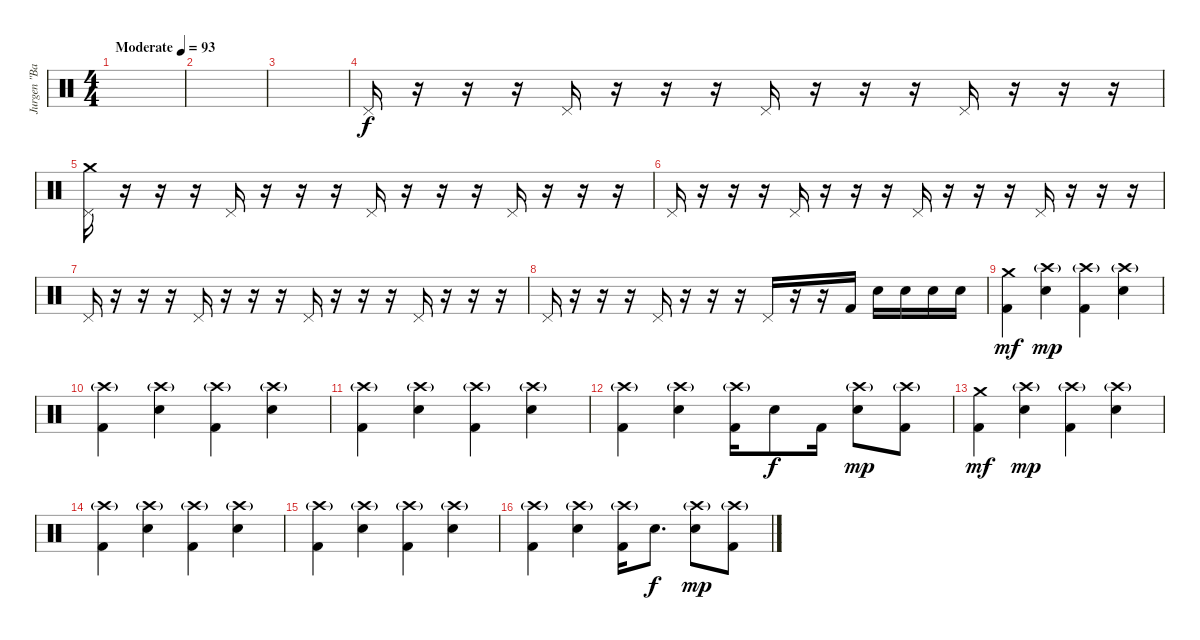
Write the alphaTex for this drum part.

\track ("Jurgen \"Bam Bam\" Wiehler" "Jurgen \"Ba") {instrument percussion}
\staff {score}
\articulation defaults
\ts (4 4)
\tempo (93 "Moderate")
\clef neutral
\ks c
|
|
|
"Pedal Hi-Hat (hit)".16 r.16 r.16 r.16 "Pedal Hi-Hat (hit)".16 r.16 r.16 r.16 "Pedal Hi-Hat (hit)".16 r.16 r.16 r.16 "Pedal Hi-Hat (hit)".16 r.16 r.16 r.16 |
("Crash medium (hit)" "Pedal Hi-Hat (hit)").16 r.16 r.16 r.16 "Pedal Hi-Hat (hit)".16 r.16 r.16 r.16 "Pedal Hi-Hat (hit)".16 r.16 r.16 r.16 "Pedal Hi-Hat (hit)".16 r.16 r.16 r.16 |
"Pedal Hi-Hat (hit)".16 r.16 r.16 r.16 "Pedal Hi-Hat (hit)".16 r.16 r.16 r.16 "Pedal Hi-Hat (hit)".16 r.16 r.16 r.16 "Pedal Hi-Hat (hit)".16 r.16 r.16 r.16 |
"Pedal Hi-Hat (hit)".16 r.16 r.16 r.16 "Pedal Hi-Hat (hit)".16 r.16 r.16 r.16 "Pedal Hi-Hat (hit)".16 r.16 r.16 r.16 "Pedal Hi-Hat (hit)".16 r.16 r.16 r.16 |
"Pedal Hi-Hat (hit)".16 r.16 r.16 r.16 "Pedal Hi-Hat (hit)".16 r.16 r.16 r.16 "Pedal Hi-Hat (hit)".16 r.16 r.16 "Kick (hit) 2".16 "Snare (hit) 2".16 "Snare (hit) 2".16 "Snare (hit) 2".16 "Snare (hit) 2".16 |
("Crash medium (hit)" "Kick (hit) 2").4{dy mf} ("Crash high (hit)"{g} "Electric Snare (hit)").4{dy mp} ("Crash high (hit)"{g} "Kick (hit) 2").4 ("Crash high (hit)"{g} "Electric Snare (hit)").4 |
("Crash high (hit)"{g} "Kick (hit) 2").4 ("Crash high (hit)"{g} "Electric Snare (hit)").4 ("Crash high (hit)"{g} "Kick (hit) 2").4 ("Crash high (hit)"{g} "Electric Snare (hit)").4 |
("Crash high (hit)"{g} "Kick (hit) 2").4 ("Crash high (hit)"{g} "Electric Snare (hit)").4 ("Crash high (hit)"{g} "Kick (hit) 2").4 ("Crash high (hit)"{g} "Electric Snare (hit)").4 |
("Crash high (hit)"{g} "Kick (hit) 2").4 ("Crash high (hit)"{g} "Electric Snare (hit)").4 ("Crash high (hit)"{g} "Kick (hit) 2").16 "Electric Snare (hit)".8{dy f} "Kick (hit) 2".16 ("Crash high (hit)"{g} "Electric Snare (hit)").8{dy mp} ("Crash high (hit)"{g} "Kick (hit) 2").8 |
("Crash medium (hit)" "Kick (hit) 2").4{dy mf} ("Crash high (hit)"{g} "Electric Snare (hit)").4{dy mp} ("Crash high (hit)"{g} "Kick (hit) 2").4 ("Crash high (hit)"{g} "Electric Snare (hit)").4 |
("Crash high (hit)"{g} "Kick (hit) 2").4 ("Crash high (hit)"{g} "Electric Snare (hit)").4 ("Crash high (hit)"{g} "Kick (hit) 2").4 ("Crash high (hit)"{g} "Electric Snare (hit)").4 |
("Crash high (hit)"{g} "Kick (hit) 2").4 ("Crash high (hit)"{g} "Electric Snare (hit)").4 ("Crash high (hit)"{g} "Kick (hit) 2").4 ("Crash high (hit)"{g} "Electric Snare (hit)").4 |
("Crash high (hit)"{g} "Kick (hit) 2").4 ("Crash high (hit)"{g} "Electric Snare (hit)").4 ("Crash high (hit)"{g} "Kick (hit) 2").16 "Electric Snare (hit)".8{d dy f} ("Crash high (hit)"{g} "Electric Snare (hit)").8{dy mp} ("Crash high (hit)"{g} "Kick (hit) 2").8
